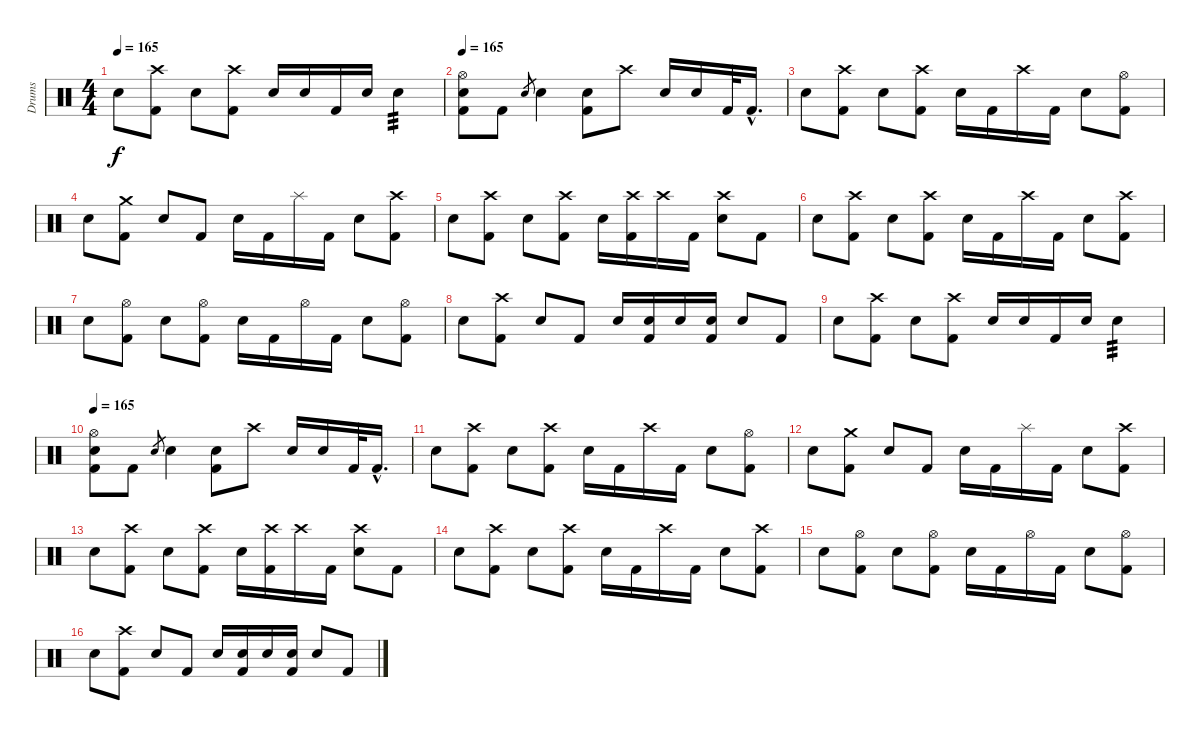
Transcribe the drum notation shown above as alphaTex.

\track ("Drums" "Drums") {instrument percussion}
\staff {score}
\articulation defaults
\ts (4 4)
\tempo 165
\clef neutral
\ks c "Electric Snare (hit)".8{dy f}
("Crash high (hit)" "Kick (hit) 2").8 "Electric Snare (hit)".8 ("Crash high (hit)" "Kick (hit) 2").8 "Electric Snare (hit)".16 "Electric Snare (hit)".16 "Kick (hit) 2".16 "Electric Snare (hit)".16 "Electric Snare (hit)".4{tp 3} |
\tempo 165
("Hi-Hat (open)" "Electric Snare (hit)" "Kick (hit) 2").8 "Kick (hit) 2".8 "Electric Snare (hit)".8{gr} "Electric Snare (hit)".4 ("Electric Snare (hit)" "Kick (hit) 2").8 "Crash high (hit)".8 "Electric Snare (hit)".16 "Electric Snare (hit)".16 "Kick (hit) 2".32 "Kick (hit) 2"{hac}.16{d} |
"Electric Snare (hit)".8 ("Crash high (hit)" "Kick (hit) 2").8 "Electric Snare (hit)".8 ("Crash high (hit)" "Kick (hit) 2").8 "Electric Snare (hit)".16 "Kick (hit) 2".16 "Crash high (hit)".16 "Kick (hit) 2".16 "Electric Snare (hit)".8 ("Hi-Hat (open)" "Kick (hit) 2").8 |
"Electric Snare (hit)".8 ("Crash medium (hit)" "Kick (hit) 2").8 "Electric Snare (hit)".8 "Kick (hit) 2".8 "Electric Snare (hit)".16 "Kick (hit) 2".16 "Splash (hit)".16 "Kick (hit) 2".16 "Electric Snare (hit)".8 ("Crash high (hit)" "Kick (hit) 2").8 |
"Electric Snare (hit)".8 ("Crash high (hit)" "Kick (hit) 2").8 "Electric Snare (hit)".8 ("Crash high (hit)" "Kick (hit) 2").8 "Electric Snare (hit)".16 ("Crash high (hit)" "Kick (hit) 2").16 "Crash high (hit)".16 "Kick (hit) 2".16 ("Crash high (hit)" "Electric Snare (hit)").8 "Kick (hit) 2".8 |
"Electric Snare (hit)".8 ("Crash high (hit)" "Kick (hit) 2").8 "Electric Snare (hit)".8 ("Crash high (hit)" "Kick (hit) 2").8 "Electric Snare (hit)".16 "Kick (hit) 2".16 "Crash high (hit)".16 "Kick (hit) 2".16 "Electric Snare (hit)".8 ("Crash high (hit)" "Kick (hit) 2").8 |
"Electric Snare (hit)".8 ("Hi-Hat (open)" "Kick (hit) 2").8 "Electric Snare (hit)".8 ("Hi-Hat (open)" "Kick (hit) 2").8 "Electric Snare (hit)".16 "Kick (hit) 2".16 "Hi-Hat (open)".16 "Kick (hit) 2".16 "Electric Snare (hit)".8 ("Hi-Hat (open)" "Kick (hit) 2").8 |
"Electric Snare (hit)".8 ("Crash high (hit)" "Kick (hit) 2").8 "Electric Snare (hit)".8 "Kick (hit) 2".8 "Electric Snare (hit)".16 ("Electric Snare (hit)" "Kick (hit) 2").16 "Electric Snare (hit)".16 ("Electric Snare (hit)" "Kick (hit) 2").16 "Electric Snare (hit)".8 "Kick (hit) 2".8 |
"Electric Snare (hit)".8 ("Crash high (hit)" "Kick (hit) 2").8 "Electric Snare (hit)".8 ("Crash high (hit)" "Kick (hit) 2").8 "Electric Snare (hit)".16 "Electric Snare (hit)".16 "Kick (hit) 2".16 "Electric Snare (hit)".16 "Electric Snare (hit)".4{tp 3} |
\tempo 165
("Hi-Hat (open)" "Electric Snare (hit)" "Kick (hit) 2").8 "Kick (hit) 2".8 "Electric Snare (hit)".8{gr} "Electric Snare (hit)".4 ("Electric Snare (hit)" "Kick (hit) 2").8 "Crash high (hit)".8 "Electric Snare (hit)".16 "Electric Snare (hit)".16 "Kick (hit) 2".32 "Kick (hit) 2"{hac}.16{d} |
"Electric Snare (hit)".8 ("Crash high (hit)" "Kick (hit) 2").8 "Electric Snare (hit)".8 ("Crash high (hit)" "Kick (hit) 2").8 "Electric Snare (hit)".16 "Kick (hit) 2".16 "Crash high (hit)".16 "Kick (hit) 2".16 "Electric Snare (hit)".8 ("Hi-Hat (open)" "Kick (hit) 2").8 |
"Electric Snare (hit)".8 ("Crash medium (hit)" "Kick (hit) 2").8 "Electric Snare (hit)".8 "Kick (hit) 2".8 "Electric Snare (hit)".16 "Kick (hit) 2".16 "Splash (hit)".16 "Kick (hit) 2".16 "Electric Snare (hit)".8 ("Crash high (hit)" "Kick (hit) 2").8 |
"Electric Snare (hit)".8 ("Crash high (hit)" "Kick (hit) 2").8 "Electric Snare (hit)".8 ("Crash high (hit)" "Kick (hit) 2").8 "Electric Snare (hit)".16 ("Crash high (hit)" "Kick (hit) 2").16 "Crash high (hit)".16 "Kick (hit) 2".16 ("Crash high (hit)" "Electric Snare (hit)").8 "Kick (hit) 2".8 |
"Electric Snare (hit)".8 ("Crash high (hit)" "Kick (hit) 2").8 "Electric Snare (hit)".8 ("Crash high (hit)" "Kick (hit) 2").8 "Electric Snare (hit)".16 "Kick (hit) 2".16 "Crash high (hit)".16 "Kick (hit) 2".16 "Electric Snare (hit)".8 ("Crash high (hit)" "Kick (hit) 2").8 |
"Electric Snare (hit)".8 ("Hi-Hat (open)" "Kick (hit) 2").8 "Electric Snare (hit)".8 ("Hi-Hat (open)" "Kick (hit) 2").8 "Electric Snare (hit)".16 "Kick (hit) 2".16 "Hi-Hat (open)".16 "Kick (hit) 2".16 "Electric Snare (hit)".8 ("Hi-Hat (open)" "Kick (hit) 2").8 |
"Electric Snare (hit)".8 ("Crash high (hit)" "Kick (hit) 2").8 "Electric Snare (hit)".8 "Kick (hit) 2".8 "Electric Snare (hit)".16 ("Electric Snare (hit)" "Kick (hit) 2").16 "Electric Snare (hit)".16 ("Electric Snare (hit)" "Kick (hit) 2").16 "Electric Snare (hit)".8 "Kick (hit) 2".8
